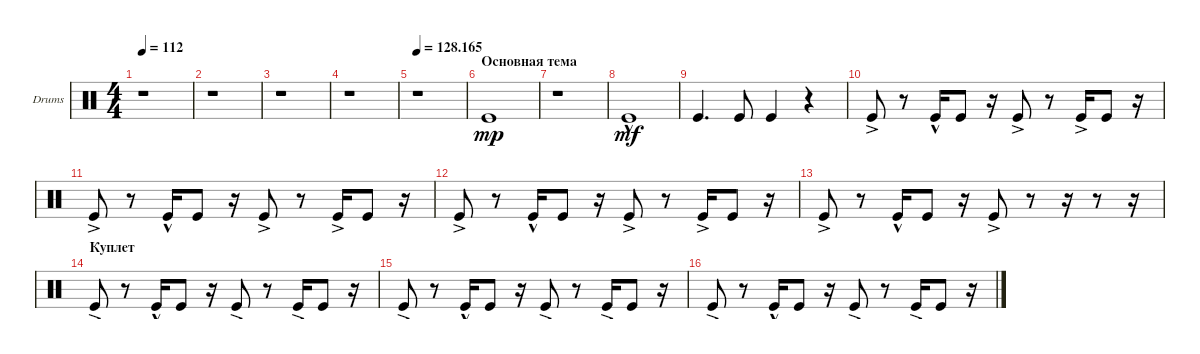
\defaultSystemsLayout 4
\bracketExtendMode groupsimilarinstruments
\firstSystemTrackNameOrientation horizontal
\otherSystemsTrackNameOrientation horizontal
\track ("Drumkit" "Drums") {instrument percussion}
\staff {score}
\articulation defaults
\ts (4 4)
\tempo 112
\clef neutral
\scale
0.333333
\ks c
r.1{dy mp} |
\scale
0.333333 r.1 |
\scale
0.333333 r.1 |
\scale
0.333333 r.1 |
\tempo
128.165
\scale
0.333333 r.1 |
\section ("" "Основная тема")
\scale
0.333333 "Kick (hit)".1 |
\scale
0.333333 r.1 |
\scale
0.333333 "Kick (hit)"{hac}.1{dy mf} |
\scale
0.333333 "Kick (hit)".4{d} "Kick (hit)".8 "Kick (hit)".4 r.4 |
\scale
0.333333 "Kick (hit)"{ac}.8 r.8 "Kick (hit)"{hac}.16 "Kick (hit)".8 r.16 "Kick (hit)"{ac}.8 r.8 "Kick (hit)"{ac}.16 "Kick (hit)".8 r.16 |
\scale
0.333333 "Kick (hit)"{ac}.8 r.8 "Kick (hit)"{hac}.16 "Kick (hit)".8 r.16 "Kick (hit)"{ac}.8 r.8 "Kick (hit)"{ac}.16 "Kick (hit)".8 r.16 |
"Kick (hit)"{ac}.8 r.8 "Kick (hit)"{hac}.16 "Kick (hit)".8 r.16 "Kick (hit)"{ac}.8 r.8 "Kick (hit)"{ac}.16 "Kick (hit)".8 r.16 |
"Kick (hit)"{ac}.8 r.8 "Kick (hit)"{hac}.16 "Kick (hit)".8 r.16 "Kick (hit)"{ac}.8 r.8 r.16 r.8 r.16 |
\section ("" "Куплет")
"Kick (hit)"{ac}.8 r.8 "Kick (hit)"{hac}.16 "Kick (hit)".8 r.16 "Kick (hit)"{ac}.8 r.8 "Kick (hit)"{ac}.16 "Kick (hit)".8 r.16 |
"Kick (hit)"{ac}.8 r.8 "Kick (hit)"{hac}.16 "Kick (hit)".8 r.16 "Kick (hit)"{ac}.8 r.8 "Kick (hit)"{ac}.16 "Kick (hit)".8 r.16 |
"Kick (hit)"{ac}.8 r.8 "Kick (hit)"{hac}.16 "Kick (hit)".8 r.16 "Kick (hit)"{ac}.8 r.8 "Kick (hit)"{ac}.16 "Kick (hit)".8 r.16
